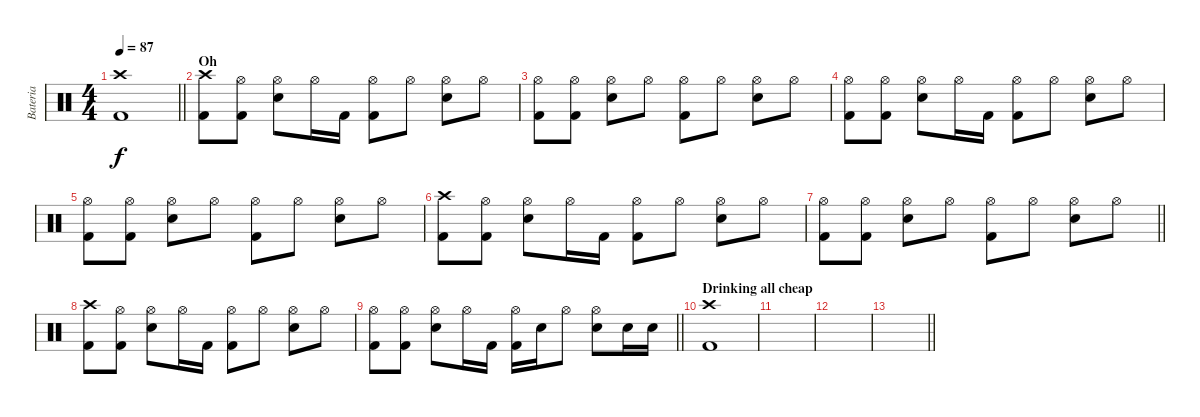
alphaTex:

\track ("Bateria" "Bateria") {instrument percussion}
\staff {score}
\articulation defaults
\ts (4 4)
\tempo 87
\clef neutral
\barLineRight lightlight
\ks c
("Crash high (hit)" "Kick (hit) 2").1{dy f} |
\section ("" "Oh")
("Crash high (hit)" "Kick (hit) 2").8 ("Hi-Hat (open)" "Kick (hit) 2").8 ("Hi-Hat (open)" "Snare (hit) 2").8 "Hi-Hat (open)".16 "Kick (hit) 2".16 ("Hi-Hat (open)" "Kick (hit) 2").8 "Hi-Hat (open)".8 ("Hi-Hat (open)" "Snare (hit) 2").8 "Hi-Hat (open)".8 |
("Hi-Hat (open)" "Kick (hit) 2").8 ("Hi-Hat (open)" "Kick (hit) 2").8 ("Hi-Hat (open)" "Snare (hit) 2").8 "Hi-Hat (open)".8 ("Hi-Hat (open)" "Kick (hit) 2").8 "Hi-Hat (open)".8 ("Hi-Hat (open)" "Snare (hit) 2").8 "Hi-Hat (open)".8 |
("Hi-Hat (open)" "Kick (hit) 2").8 ("Hi-Hat (open)" "Kick (hit) 2").8 ("Hi-Hat (open)" "Snare (hit) 2").8 "Hi-Hat (open)".16 "Kick (hit) 2".16 ("Hi-Hat (open)" "Kick (hit) 2").8 "Hi-Hat (open)".8 ("Hi-Hat (open)" "Snare (hit) 2").8 "Hi-Hat (open)".8 |
("Hi-Hat (open)" "Kick (hit) 2").8 ("Hi-Hat (open)" "Kick (hit) 2").8 ("Hi-Hat (open)" "Snare (hit) 2").8 "Hi-Hat (open)".8 ("Hi-Hat (open)" "Kick (hit) 2").8 "Hi-Hat (open)".8 ("Hi-Hat (open)" "Snare (hit) 2").8 "Hi-Hat (open)".8 |
("Crash high (hit)" "Kick (hit) 2").8 ("Hi-Hat (open)" "Kick (hit) 2").8 ("Hi-Hat (open)" "Snare (hit) 2").8 "Hi-Hat (open)".16 "Kick (hit) 2".16 ("Hi-Hat (open)" "Kick (hit) 2").8 "Hi-Hat (open)".8 ("Hi-Hat (open)" "Snare (hit) 2").8 "Hi-Hat (open)".8 |
\barLineRight lightlight
("Hi-Hat (open)" "Kick (hit) 2").8 ("Hi-Hat (open)" "Kick (hit) 2").8 ("Hi-Hat (open)" "Snare (hit) 2").8 "Hi-Hat (open)".8 ("Hi-Hat (open)" "Kick (hit) 2").8 "Hi-Hat (open)".8 ("Hi-Hat (open)" "Snare (hit) 2").8 "Hi-Hat (open)".8 |
("Crash high (hit)" "Kick (hit) 2").8 ("Hi-Hat (open)" "Kick (hit) 2").8 ("Hi-Hat (open)" "Snare (hit) 2").8 "Hi-Hat (open)".16 "Kick (hit) 2".16 ("Hi-Hat (open)" "Kick (hit) 2").8 "Hi-Hat (open)".8 ("Hi-Hat (open)" "Snare (hit) 2").8 "Hi-Hat (open)".8 |
\barLineRight lightlight
("Hi-Hat (open)" "Kick (hit) 2").8 ("Hi-Hat (open)" "Kick (hit) 2").8 ("Hi-Hat (open)" "Snare (hit) 2").8 "Hi-Hat (open)".16 "Kick (hit) 2".16 ("Hi-Hat (open)" "Kick (hit) 2").16 "Snare (hit) 2".16 "Hi-Hat (open)".8 ("Hi-Hat (open)" "Snare (hit) 2").8 "Snare (hit) 2".16 "Snare (hit) 2".16 |
\section ("" "Drinking all cheap")
("Crash high (hit)" "Kick (hit) 2").1 |
|
|
\barLineRight lightlight
